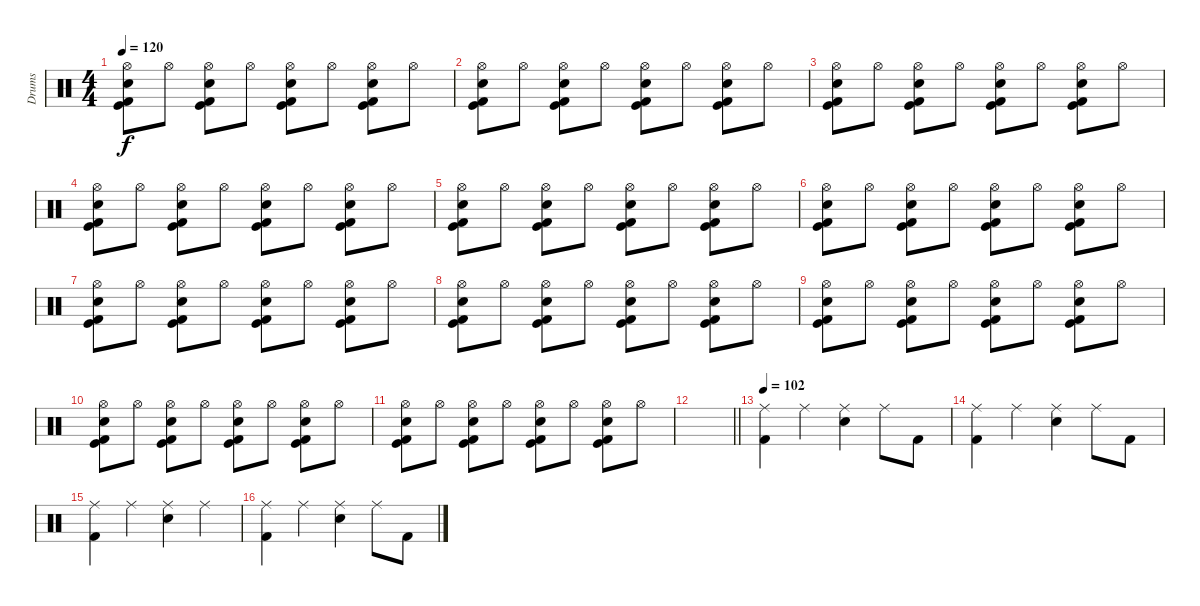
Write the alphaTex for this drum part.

\track ("Drums" "Drums") {instrument percussion}
\staff {score}
\articulation defaults
\ts (4 4)
\tempo 120
\clef neutral
\ks c
("Hi-Hat (open)" "Kick (hit) 2" "Kick (hit)" "Snare (hit) 2").8{dy f} "Hi-Hat (open)".8 ("Kick (hit) 2" "Kick (hit)" "Hi-Hat (open)" "Snare (hit) 2").8 "Hi-Hat (open)".8 ("Hi-Hat (open)" "Kick (hit) 2" "Kick (hit)" "Snare (hit) 2").8 "Hi-Hat (open)".8 ("Kick (hit) 2" "Kick (hit)" "Hi-Hat (open)" "Snare (hit) 2").8 "Hi-Hat (open)".8 |
("Hi-Hat (open)" "Kick (hit) 2" "Kick (hit)" "Snare (hit) 2").8 "Hi-Hat (open)".8 ("Kick (hit) 2" "Kick (hit)" "Hi-Hat (open)" "Snare (hit) 2").8 "Hi-Hat (open)".8 ("Hi-Hat (open)" "Kick (hit) 2" "Kick (hit)" "Snare (hit) 2").8 "Hi-Hat (open)".8 ("Kick (hit) 2" "Kick (hit)" "Hi-Hat (open)" "Snare (hit) 2").8 "Hi-Hat (open)".8 |
("Hi-Hat (open)" "Kick (hit) 2" "Kick (hit)" "Snare (hit) 2").8 "Hi-Hat (open)".8 ("Kick (hit) 2" "Kick (hit)" "Hi-Hat (open)" "Snare (hit) 2").8 "Hi-Hat (open)".8 ("Hi-Hat (open)" "Kick (hit) 2" "Kick (hit)" "Snare (hit) 2").8 "Hi-Hat (open)".8 ("Kick (hit) 2" "Kick (hit)" "Hi-Hat (open)" "Snare (hit) 2").8 "Hi-Hat (open)".8 |
("Hi-Hat (open)" "Kick (hit) 2" "Kick (hit)" "Snare (hit) 2").8 "Hi-Hat (open)".8 ("Kick (hit) 2" "Kick (hit)" "Hi-Hat (open)" "Snare (hit) 2").8 "Hi-Hat (open)".8 ("Hi-Hat (open)" "Kick (hit) 2" "Kick (hit)" "Snare (hit) 2").8 "Hi-Hat (open)".8 ("Kick (hit) 2" "Kick (hit)" "Hi-Hat (open)" "Snare (hit) 2").8 "Hi-Hat (open)".8 |
("Hi-Hat (open)" "Kick (hit) 2" "Kick (hit)" "Snare (hit) 2").8 "Hi-Hat (open)".8 ("Kick (hit) 2" "Kick (hit)" "Hi-Hat (open)" "Snare (hit) 2").8 "Hi-Hat (open)".8 ("Hi-Hat (open)" "Kick (hit) 2" "Kick (hit)" "Snare (hit) 2").8 "Hi-Hat (open)".8 ("Kick (hit) 2" "Kick (hit)" "Hi-Hat (open)" "Snare (hit) 2").8 "Hi-Hat (open)".8 |
("Hi-Hat (open)" "Kick (hit) 2" "Kick (hit)" "Snare (hit) 2").8 "Hi-Hat (open)".8 ("Kick (hit) 2" "Kick (hit)" "Hi-Hat (open)" "Snare (hit) 2").8 "Hi-Hat (open)".8 ("Hi-Hat (open)" "Kick (hit) 2" "Kick (hit)" "Snare (hit) 2").8 "Hi-Hat (open)".8 ("Kick (hit) 2" "Kick (hit)" "Hi-Hat (open)" "Snare (hit) 2").8 "Hi-Hat (open)".8 |
("Hi-Hat (open)" "Kick (hit) 2" "Kick (hit)" "Snare (hit) 2").8 "Hi-Hat (open)".8 ("Kick (hit) 2" "Kick (hit)" "Hi-Hat (open)" "Snare (hit) 2").8 "Hi-Hat (open)".8 ("Hi-Hat (open)" "Kick (hit) 2" "Kick (hit)" "Snare (hit) 2").8 "Hi-Hat (open)".8 ("Kick (hit) 2" "Kick (hit)" "Hi-Hat (open)" "Snare (hit) 2").8 "Hi-Hat (open)".8 |
("Hi-Hat (open)" "Kick (hit) 2" "Kick (hit)" "Snare (hit) 2").8 "Hi-Hat (open)".8 ("Kick (hit) 2" "Kick (hit)" "Hi-Hat (open)" "Snare (hit) 2").8 "Hi-Hat (open)".8 ("Hi-Hat (open)" "Kick (hit) 2" "Kick (hit)" "Snare (hit) 2").8 "Hi-Hat (open)".8 ("Kick (hit) 2" "Kick (hit)" "Hi-Hat (open)" "Snare (hit) 2").8 "Hi-Hat (open)".8 |
("Hi-Hat (open)" "Kick (hit) 2" "Kick (hit)" "Snare (hit) 2").8 "Hi-Hat (open)".8 ("Kick (hit) 2" "Kick (hit)" "Hi-Hat (open)" "Snare (hit) 2").8 "Hi-Hat (open)".8 ("Hi-Hat (open)" "Kick (hit) 2" "Kick (hit)" "Snare (hit) 2").8 "Hi-Hat (open)".8 ("Kick (hit) 2" "Kick (hit)" "Hi-Hat (open)" "Snare (hit) 2").8 "Hi-Hat (open)".8 |
("Hi-Hat (open)" "Kick (hit) 2" "Kick (hit)" "Snare (hit) 2").8 "Hi-Hat (open)".8 ("Kick (hit) 2" "Kick (hit)" "Hi-Hat (open)" "Snare (hit) 2").8 "Hi-Hat (open)".8 ("Hi-Hat (open)" "Kick (hit) 2" "Kick (hit)" "Snare (hit) 2").8 "Hi-Hat (open)".8 ("Kick (hit) 2" "Kick (hit)" "Hi-Hat (open)" "Snare (hit) 2").8 "Hi-Hat (open)".8 |
("Hi-Hat (open)" "Kick (hit) 2" "Kick (hit)" "Snare (hit) 2").8 "Hi-Hat (open)".8 ("Kick (hit) 2" "Kick (hit)" "Hi-Hat (open)" "Snare (hit) 2").8 "Hi-Hat (open)".8 ("Hi-Hat (open)" "Kick (hit) 2" "Kick (hit)" "Snare (hit) 2").8 "Hi-Hat (open)".8 ("Kick (hit) 2" "Kick (hit)" "Hi-Hat (open)" "Snare (hit) 2").8 "Hi-Hat (open)".8 |
\barLineRight lightlight
|
\tempo 102
("Ride (middle)" "Kick (hit) 2").4 "Ride (middle)".4 ("Ride (middle)" "Electric Snare (hit)").4 "Ride (middle)".8 "Kick (hit) 2".8 |
("Ride (middle)" "Kick (hit) 2").4 "Ride (middle)".4 ("Ride (middle)" "Electric Snare (hit)").4 "Ride (middle)".8 "Kick (hit) 2".8 |
("Ride (middle)" "Kick (hit) 2").4 "Ride (middle)".4 ("Ride (middle)" "Electric Snare (hit)").4 "Ride (middle)".4 |
("Ride (middle)" "Kick (hit) 2").4 "Ride (middle)".4 ("Ride (middle)" "Electric Snare (hit)").4 "Ride (middle)".8 "Kick (hit) 2".8
